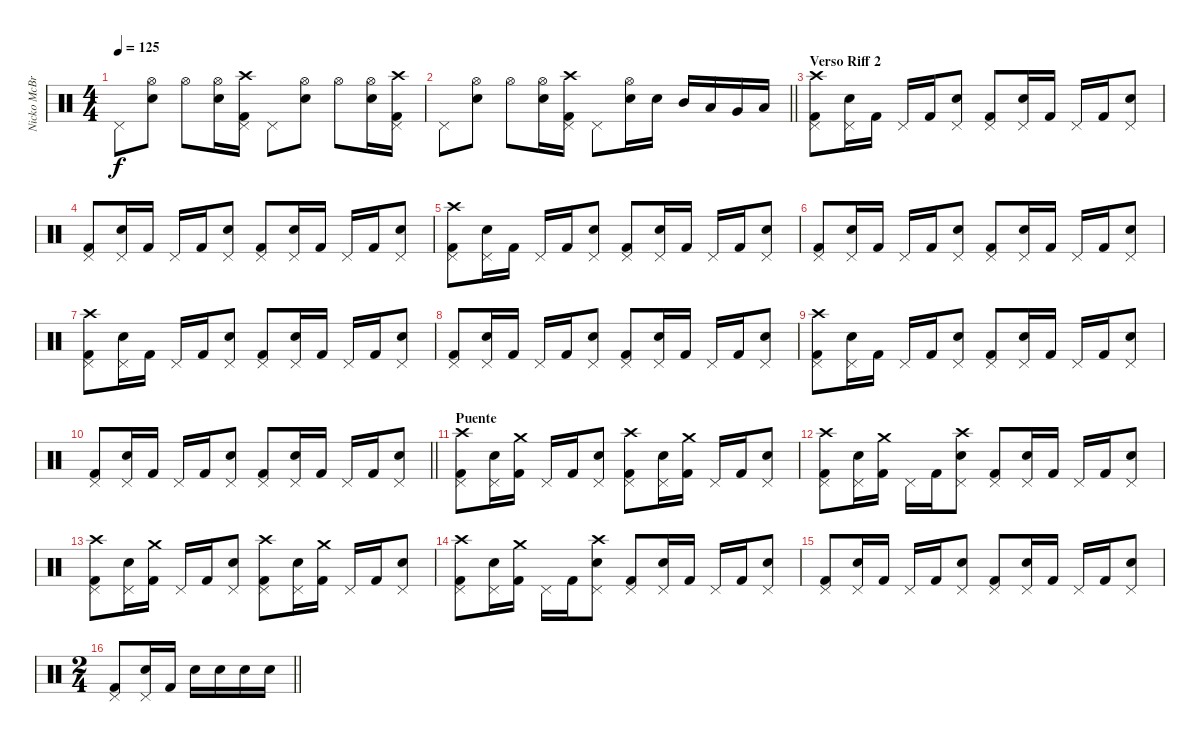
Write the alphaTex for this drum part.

\track ("Nicko McBrain" "Nicko McBr") {instrument percussion}
\staff {score}
\articulation defaults
\ts (4 4)
\tempo 125
\clef neutral
\ks c "Pedal Hi-Hat (hit)".8{dy f}
("Snare (hit) 2" "Hi-Hat (open)").8 "Hi-Hat (open)".8 ("Snare (hit) 2" "Hi-Hat (open)").16 ("Kick (hit) 2" "Pedal Hi-Hat (hit)" "Crash high (hit)").16 "Pedal Hi-Hat (hit)".8 ("Snare (hit) 2" "Hi-Hat (open)").8 "Hi-Hat (open)".8 ("Snare (hit) 2" "Hi-Hat (open)").16 ("Kick (hit) 2" "Pedal Hi-Hat (hit)" "Crash high (hit)").16 |
\barLineRight lightlight "Pedal Hi-Hat (hit)".8
("Snare (hit) 2" "Hi-Hat (open)").8 "Hi-Hat (open)".8 ("Snare (hit) 2" "Hi-Hat (open)").16 ("Kick (hit) 2" "Pedal Hi-Hat (hit)" "Crash high (hit)").16 "Pedal Hi-Hat (hit)".8 ("Snare (hit) 2" "Hi-Hat (open)").16 "Snare (hit) 2".16 "Mid Tom (hit)".16 "Low Tom (hit)".16 "Very Low Tom (hit)".16 "Low Floor Tom (hit)".16 |
\section ("" "Verso Riff 2")
("Kick (hit) 2" "Pedal Hi-Hat (hit)" "Crash high (hit)").8 ("Snare (hit) 2" "Pedal Hi-Hat (hit)").16 "Kick (hit) 2".16 "Pedal Hi-Hat (hit)".16 "Kick (hit) 2".16 ("Snare (hit) 2" "Pedal Hi-Hat (hit)").8 ("Kick (hit) 2" "Pedal Hi-Hat (hit)").8 ("Snare (hit) 2" "Pedal Hi-Hat (hit)").16 "Kick (hit) 2".16 "Pedal Hi-Hat (hit)".16 "Kick (hit) 2".16 ("Snare (hit) 2" "Pedal Hi-Hat (hit)").8 |
("Kick (hit) 2" "Pedal Hi-Hat (hit)").8 ("Snare (hit) 2" "Pedal Hi-Hat (hit)").16 "Kick (hit) 2".16 "Pedal Hi-Hat (hit)".16 "Kick (hit) 2".16 ("Snare (hit) 2" "Pedal Hi-Hat (hit)").8 ("Kick (hit) 2" "Pedal Hi-Hat (hit)").8 ("Snare (hit) 2" "Pedal Hi-Hat (hit)").16 "Kick (hit) 2".16 "Pedal Hi-Hat (hit)".16 "Kick (hit) 2".16 ("Snare (hit) 2" "Pedal Hi-Hat (hit)").8 |
("Kick (hit) 2" "Pedal Hi-Hat (hit)" "Crash high (hit)").8 ("Snare (hit) 2" "Pedal Hi-Hat (hit)").16 "Kick (hit) 2".16 "Pedal Hi-Hat (hit)".16 "Kick (hit) 2".16 ("Snare (hit) 2" "Pedal Hi-Hat (hit)").8 ("Kick (hit) 2" "Pedal Hi-Hat (hit)").8 ("Snare (hit) 2" "Pedal Hi-Hat (hit)").16 "Kick (hit) 2".16 "Pedal Hi-Hat (hit)".16 "Kick (hit) 2".16 ("Snare (hit) 2" "Pedal Hi-Hat (hit)").8 |
("Kick (hit) 2" "Pedal Hi-Hat (hit)").8 ("Snare (hit) 2" "Pedal Hi-Hat (hit)").16 "Kick (hit) 2".16 "Pedal Hi-Hat (hit)".16 "Kick (hit) 2".16 ("Snare (hit) 2" "Pedal Hi-Hat (hit)").8 ("Kick (hit) 2" "Pedal Hi-Hat (hit)").8 ("Snare (hit) 2" "Pedal Hi-Hat (hit)").16 "Kick (hit) 2".16 "Pedal Hi-Hat (hit)".16 "Kick (hit) 2".16 ("Snare (hit) 2" "Pedal Hi-Hat (hit)").8 |
("Kick (hit) 2" "Pedal Hi-Hat (hit)" "Crash high (hit)").8 ("Snare (hit) 2" "Pedal Hi-Hat (hit)").16 "Kick (hit) 2".16 "Pedal Hi-Hat (hit)".16 "Kick (hit) 2".16 ("Snare (hit) 2" "Pedal Hi-Hat (hit)").8 ("Kick (hit) 2" "Pedal Hi-Hat (hit)").8 ("Snare (hit) 2" "Pedal Hi-Hat (hit)").16 "Kick (hit) 2".16 "Pedal Hi-Hat (hit)".16 "Kick (hit) 2".16 ("Snare (hit) 2" "Pedal Hi-Hat (hit)").8 |
("Kick (hit) 2" "Pedal Hi-Hat (hit)").8 ("Snare (hit) 2" "Pedal Hi-Hat (hit)").16 "Kick (hit) 2".16 "Pedal Hi-Hat (hit)".16 "Kick (hit) 2".16 ("Snare (hit) 2" "Pedal Hi-Hat (hit)").8 ("Kick (hit) 2" "Pedal Hi-Hat (hit)").8 ("Snare (hit) 2" "Pedal Hi-Hat (hit)").16 "Kick (hit) 2".16 "Pedal Hi-Hat (hit)".16 "Kick (hit) 2".16 ("Snare (hit) 2" "Pedal Hi-Hat (hit)").8 |
("Kick (hit) 2" "Pedal Hi-Hat (hit)" "Crash high (hit)").8 ("Snare (hit) 2" "Pedal Hi-Hat (hit)").16 "Kick (hit) 2".16 "Pedal Hi-Hat (hit)".16 "Kick (hit) 2".16 ("Snare (hit) 2" "Pedal Hi-Hat (hit)").8 ("Kick (hit) 2" "Pedal Hi-Hat (hit)").8 ("Snare (hit) 2" "Pedal Hi-Hat (hit)").16 "Kick (hit) 2".16 "Pedal Hi-Hat (hit)".16 "Kick (hit) 2".16 ("Snare (hit) 2" "Pedal Hi-Hat (hit)").8 |
\barLineRight lightlight
("Kick (hit) 2" "Pedal Hi-Hat (hit)").8 ("Snare (hit) 2" "Pedal Hi-Hat (hit)").16 "Kick (hit) 2".16 "Pedal Hi-Hat (hit)".16 "Kick (hit) 2".16 ("Snare (hit) 2" "Pedal Hi-Hat (hit)").8 ("Kick (hit) 2" "Pedal Hi-Hat (hit)").8 ("Snare (hit) 2" "Pedal Hi-Hat (hit)").16 "Kick (hit) 2".16 "Pedal Hi-Hat (hit)".16 "Kick (hit) 2".16 ("Snare (hit) 2" "Pedal Hi-Hat (hit)").8 |
\section ("" "Puente")
("Kick (hit) 2" "Pedal Hi-Hat (hit)" "Crash high (hit)").8 ("Snare (hit) 2" "Pedal Hi-Hat (hit)").16 ("Kick (hit) 2" "Crash medium (hit)").16 "Pedal Hi-Hat (hit)".16 "Kick (hit) 2".16 ("Snare (hit) 2" "Pedal Hi-Hat (hit)").8 ("Kick (hit) 2" "Pedal Hi-Hat (hit)" "Crash high (hit)").8 ("Snare (hit) 2" "Pedal Hi-Hat (hit)").16 ("Kick (hit) 2" "Crash medium (hit)").16 "Pedal Hi-Hat (hit)".16 "Kick (hit) 2".16 ("Snare (hit) 2" "Pedal Hi-Hat (hit)").8 |
("Kick (hit) 2" "Pedal Hi-Hat (hit)" "Crash high (hit)").8 ("Snare (hit) 2" "Pedal Hi-Hat (hit)").16 ("Kick (hit) 2" "Crash medium (hit)").16 "Pedal Hi-Hat (hit)".16 "Kick (hit) 2".16 ("Snare (hit) 2" "Pedal Hi-Hat (hit)" "Crash high (hit)").8 ("Kick (hit) 2" "Pedal Hi-Hat (hit)").8 ("Snare (hit) 2" "Pedal Hi-Hat (hit)").16 "Kick (hit) 2".16 "Pedal Hi-Hat (hit)".16 "Kick (hit) 2".16 ("Snare (hit) 2" "Pedal Hi-Hat (hit)").8 |
("Kick (hit) 2" "Pedal Hi-Hat (hit)" "Crash high (hit)").8 ("Snare (hit) 2" "Pedal Hi-Hat (hit)").16 ("Kick (hit) 2" "Crash medium (hit)").16 "Pedal Hi-Hat (hit)".16 "Kick (hit) 2".16 ("Snare (hit) 2" "Pedal Hi-Hat (hit)").8 ("Kick (hit) 2" "Pedal Hi-Hat (hit)" "Crash high (hit)").8 ("Snare (hit) 2" "Pedal Hi-Hat (hit)").16 ("Kick (hit) 2" "Crash medium (hit)").16 "Pedal Hi-Hat (hit)".16 "Kick (hit) 2".16 ("Snare (hit) 2" "Pedal Hi-Hat (hit)").8 |
("Kick (hit) 2" "Pedal Hi-Hat (hit)" "Crash high (hit)").8 ("Snare (hit) 2" "Pedal Hi-Hat (hit)").16 ("Kick (hit) 2" "Crash medium (hit)").16 "Pedal Hi-Hat (hit)".16 "Kick (hit) 2".16 ("Snare (hit) 2" "Pedal Hi-Hat (hit)" "Crash high (hit)").8 ("Kick (hit) 2" "Pedal Hi-Hat (hit)").8 ("Snare (hit) 2" "Pedal Hi-Hat (hit)").16 "Kick (hit) 2".16 "Pedal Hi-Hat (hit)".16 "Kick (hit) 2".16 ("Snare (hit) 2" "Pedal Hi-Hat (hit)").8 |
("Kick (hit) 2" "Pedal Hi-Hat (hit)").8 ("Snare (hit) 2" "Pedal Hi-Hat (hit)").16 "Kick (hit) 2".16 "Pedal Hi-Hat (hit)".16 "Kick (hit) 2".16 ("Snare (hit) 2" "Pedal Hi-Hat (hit)").8 ("Kick (hit) 2" "Pedal Hi-Hat (hit)").8 ("Snare (hit) 2" "Pedal Hi-Hat (hit)").16 "Kick (hit) 2".16 "Pedal Hi-Hat (hit)".16 "Kick (hit) 2".16 ("Snare (hit) 2" "Pedal Hi-Hat (hit)").8 |
\ts (2 4)
\barLineRight lightlight
("Kick (hit) 2" "Pedal Hi-Hat (hit)").8 ("Snare (hit) 2" "Pedal Hi-Hat (hit)").16 "Kick (hit) 2".16 "Snare (hit) 2".16 "Snare (hit) 2".16 "Snare (hit) 2".16 "Snare (hit) 2".16
